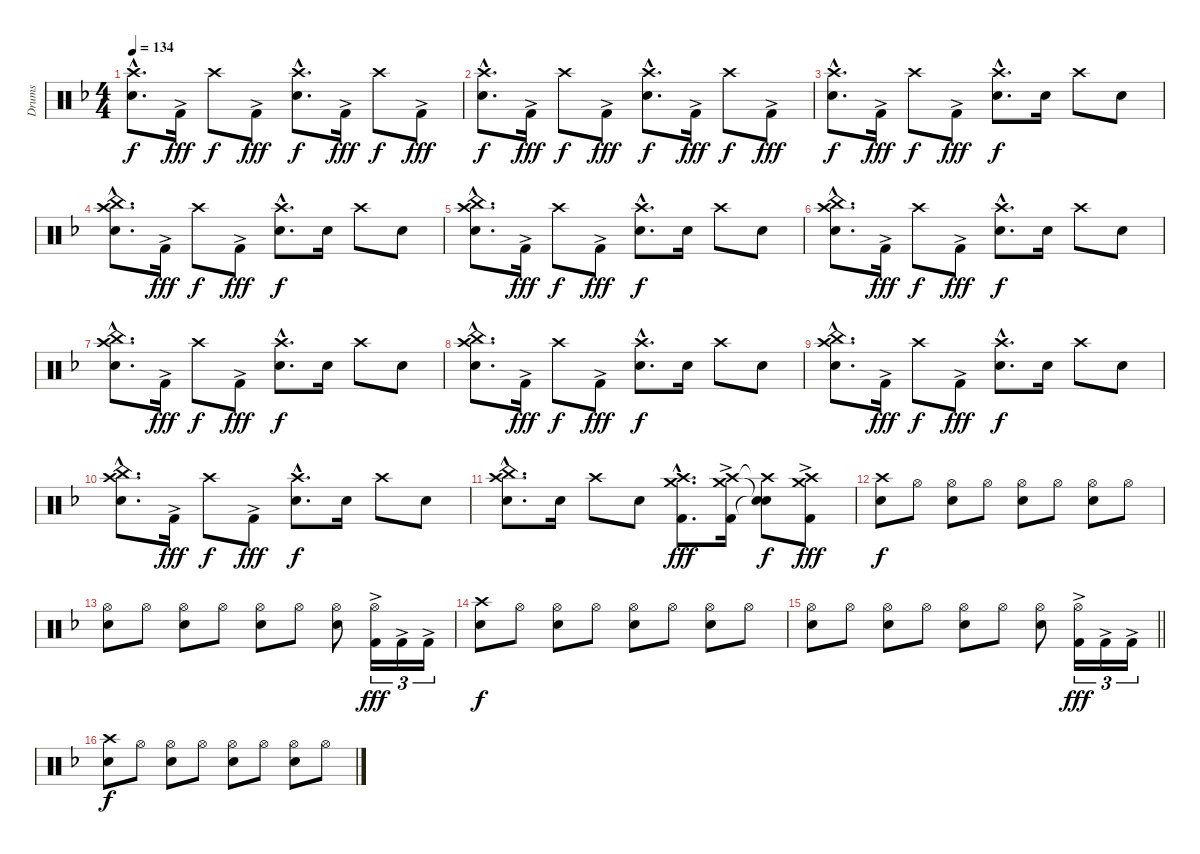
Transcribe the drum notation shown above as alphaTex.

\track ("Drums" "Drums") {instrument percussion}
\staff {score}
\articulation defaults
\ts (4 4)
\tempo 134
\clef neutral
\ks dminor
("Crash high (hit)" "Snare (hit) 2"{hac}).8{d dy f} "Kick (hit) 2"{ac}.16{dy fff} "Crash high (hit)".8{dy f} "Kick (hit) 2"{ac}.8{dy fff} ("Crash high (hit)" "Snare (hit) 2"{hac}).8{d dy f} "Kick (hit) 2"{ac}.16{dy fff} "Crash high (hit)".8{dy f} "Kick (hit) 2"{ac}.8{dy fff} |
("Crash high (hit)" "Snare (hit) 2"{hac}).8{d dy f} "Kick (hit) 2"{ac}.16{dy fff} "Crash high (hit)".8{dy f} "Kick (hit) 2"{ac}.8{dy fff} ("Crash high (hit)" "Snare (hit) 2"{hac}).8{d dy f} "Kick (hit) 2"{ac}.16{dy fff} "Crash high (hit)".8{dy f} "Kick (hit) 2"{ac}.8{dy fff} |
("Crash high (hit)" "Snare (hit) 2"{hac}).8{d dy f} "Kick (hit) 2"{ac}.16{dy fff} "Crash high (hit)".8{dy f} "Kick (hit) 2"{ac}.8{dy fff} ("Crash high (hit)" "Snare (hit) 2"{hac}).8{d dy f} "Snare (hit) 2".16 "Crash high (hit)".8 "Snare (hit) 2".8 |
("Crash high (hit)" "China (hit)"{hac} "Snare (hit) 2"{hac}).8{d} "Kick (hit) 2"{ac}.16{dy fff} "Crash high (hit)".8{dy f} "Kick (hit) 2"{ac}.8{dy fff} ("Crash high (hit)" "Snare (hit) 2"{hac}).8{d dy f} "Snare (hit) 2".16 "Crash high (hit)".8 "Snare (hit) 2".8 |
("Crash high (hit)" "China (hit)"{hac} "Snare (hit) 2"{hac}).8{d} "Kick (hit) 2"{ac}.16{dy fff} "Crash high (hit)".8{dy f} "Kick (hit) 2"{ac}.8{dy fff} ("Crash high (hit)" "Snare (hit) 2"{hac}).8{d dy f} "Snare (hit) 2".16 "Crash high (hit)".8 "Snare (hit) 2".8 |
("Crash high (hit)" "China (hit)"{hac} "Snare (hit) 2"{hac}).8{d} "Kick (hit) 2"{ac}.16{dy fff} "Crash high (hit)".8{dy f} "Kick (hit) 2"{ac}.8{dy fff} ("Crash high (hit)" "Snare (hit) 2"{hac}).8{d dy f} "Snare (hit) 2".16 "Crash high (hit)".8 "Snare (hit) 2".8 |
("Crash high (hit)" "China (hit)"{hac} "Snare (hit) 2"{hac}).8{d} "Kick (hit) 2"{ac}.16{dy fff} "Crash high (hit)".8{dy f} "Kick (hit) 2"{ac}.8{dy fff} ("Crash high (hit)" "Snare (hit) 2"{hac}).8{d dy f} "Snare (hit) 2".16 "Crash high (hit)".8 "Snare (hit) 2".8 |
("Crash high (hit)" "China (hit)"{hac} "Snare (hit) 2"{hac}).8{d} "Kick (hit) 2"{ac}.16{dy fff} "Crash high (hit)".8{dy f} "Kick (hit) 2"{ac}.8{dy fff} ("Crash high (hit)" "Snare (hit) 2"{hac}).8{d dy f} "Snare (hit) 2".16 "Crash high (hit)".8 "Snare (hit) 2".8 |
("Crash high (hit)" "China (hit)"{hac} "Snare (hit) 2"{hac}).8{d} "Kick (hit) 2"{ac}.16{dy fff} "Crash high (hit)".8{dy f} "Kick (hit) 2"{ac}.8{dy fff} ("Crash high (hit)" "Snare (hit) 2"{hac}).8{d dy f} "Snare (hit) 2".16 "Crash high (hit)".8 "Snare (hit) 2".8 |
("Crash high (hit)" "China (hit)"{hac} "Snare (hit) 2"{hac}).8{d} "Kick (hit) 2"{ac}.16{dy fff} "Crash high (hit)".8{dy f} "Kick (hit) 2"{ac}.8{dy fff} ("Crash high (hit)" "Snare (hit) 2"{hac}).8{d dy f} "Snare (hit) 2".16 "Crash high (hit)".8 "Snare (hit) 2".8 |
("Crash high (hit)" "China (hit)"{hac} "Snare (hit) 2"{hac}).8{d} "Snare (hit) 2".16 "Crash high (hit)".8 "Snare (hit) 2".8 ("Crash high (hit)" "Crash medium (hit)"{hac} "Kick (hit) 2"{hac}).8{d dy fff} ("Crash high (hit)" "Crash medium (hit)" "Kick (hit) 2"{ac}).16 ("Crash high (hit)"{t} "Snare (hit)"{t} "Snare (hit)"{t}).8{dy f} ("Crash high (hit)" "Crash medium (hit)" "Kick (hit) 2"{ac}).8{dy fff} |
("Crash high (hit)" "Snare (hit) 2").8{dy f} "Hi-Hat (open)".8 ("Hi-Hat (open)" "Snare (hit) 2").8 "Hi-Hat (open)".8 ("Hi-Hat (open)" "Snare (hit) 2").8 "Hi-Hat (open)".8 ("Hi-Hat (open)" "Snare (hit) 2").8 "Hi-Hat (open)".8 |
("Hi-Hat (open)" "Snare (hit) 2").8 "Hi-Hat (open)".8 ("Hi-Hat (open)" "Snare (hit) 2").8 "Hi-Hat (open)".8 ("Hi-Hat (open)" "Snare (hit) 2").8 "Hi-Hat (open)".8 ("Hi-Hat (open)" "Snare (hit) 2").8 ("Hi-Hat (open)" "Kick (hit) 2"{ac}).16{tu (3 2) dy fff} "Kick (hit) 2"{ac}.16{tu (3 2)} "Kick (hit) 2"{ac}.16{tu (3 2)} |
("Crash high (hit)" "Snare (hit) 2").8{dy f} "Hi-Hat (open)".8 ("Hi-Hat (open)" "Snare (hit) 2").8 "Hi-Hat (open)".8 ("Hi-Hat (open)" "Snare (hit) 2").8 "Hi-Hat (open)".8 ("Hi-Hat (open)" "Snare (hit) 2").8 "Hi-Hat (open)".8 |
\barLineRight lightlight
("Hi-Hat (open)" "Snare (hit) 2").8 "Hi-Hat (open)".8 ("Hi-Hat (open)" "Snare (hit) 2").8 "Hi-Hat (open)".8 ("Hi-Hat (open)" "Snare (hit) 2").8 "Hi-Hat (open)".8 ("Hi-Hat (open)" "Snare (hit) 2").8 ("Hi-Hat (open)" "Kick (hit) 2"{ac}).16{tu (3 2) dy fff} "Kick (hit) 2"{ac}.16{tu (3 2)} "Kick (hit) 2"{ac}.16{tu (3 2)} |
("Crash high (hit)" "Snare (hit) 2").8{dy f} "Hi-Hat (open)".8 ("Hi-Hat (open)" "Snare (hit) 2").8 "Hi-Hat (open)".8 ("Hi-Hat (open)" "Snare (hit) 2").8 "Hi-Hat (open)".8 ("Hi-Hat (open)" "Snare (hit) 2").8 "Hi-Hat (open)".8
